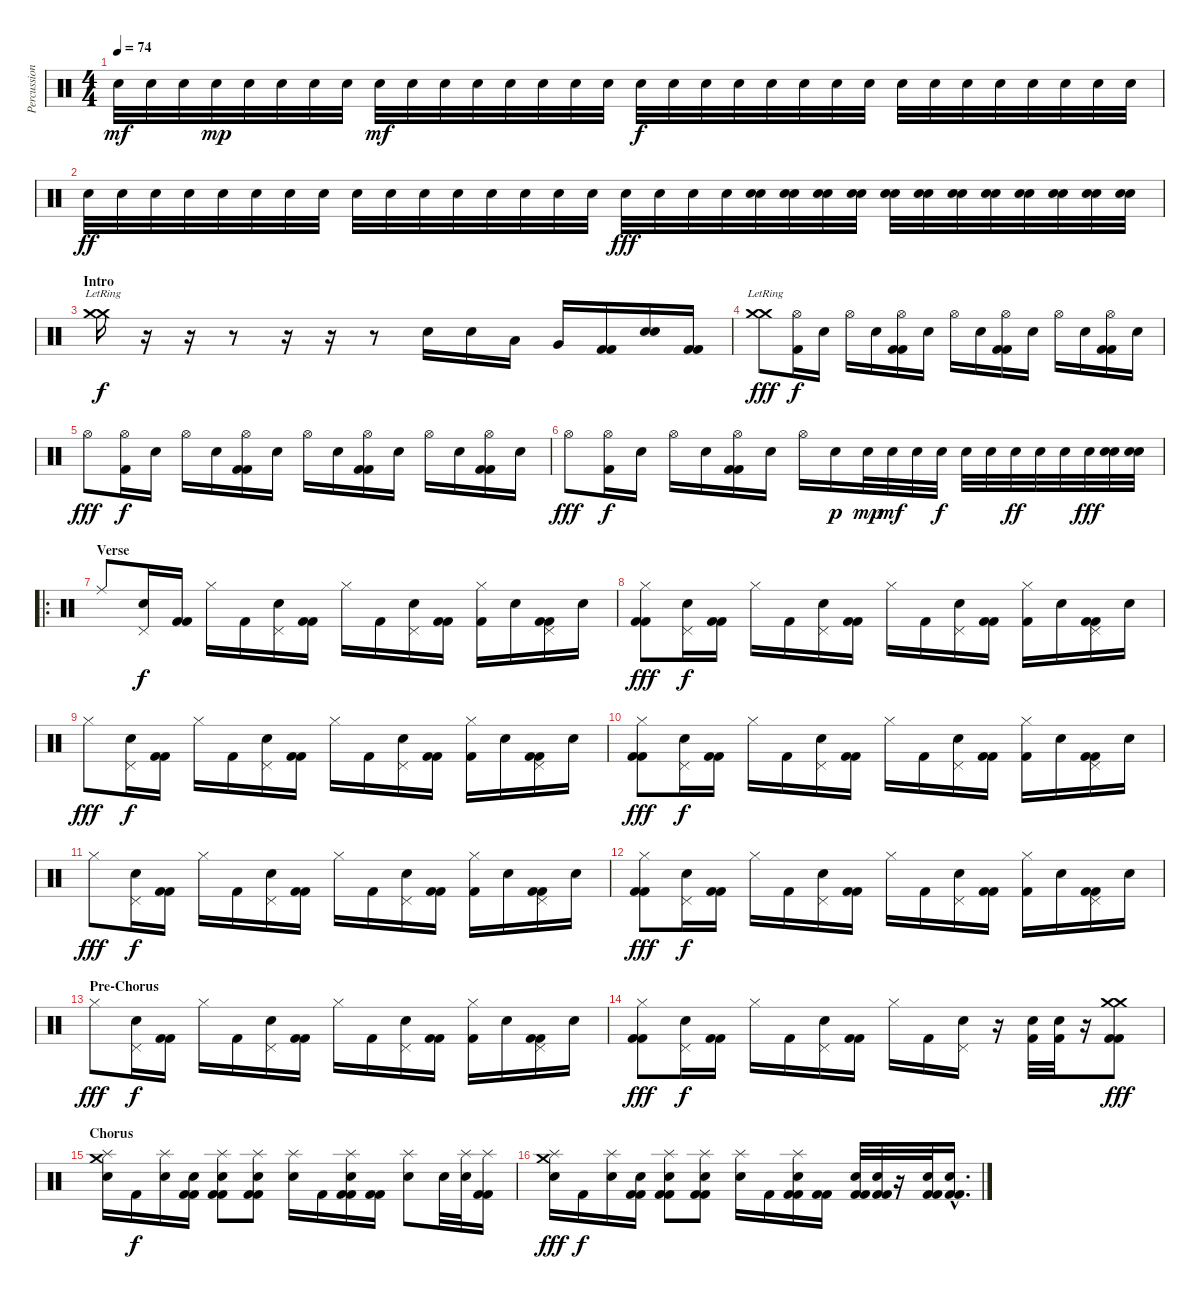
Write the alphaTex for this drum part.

\track ("Percussion" "Percussion") {instrument percussion}
\staff {score}
\articulation defaults
\ts (4 4)
\tempo 74
\clef neutral
\ks c "Snare (hit) 2".32{dy mf} "Snare (hit) 2".32 "Snare (hit) 2".32 "Snare (hit) 2".32{dy mp} "Snare (hit) 2".32 "Snare (hit) 2".32 "Snare (hit) 2".32 "Snare (hit) 2".32 "Snare (hit) 2".32{dy mf} "Snare (hit) 2".32 "Snare (hit) 2".32 "Snare (hit) 2".32 "Snare (hit) 2".32 "Snare (hit) 2".32 "Snare (hit) 2".32 "Snare (hit) 2".32 "Snare (hit) 2".32{dy f} "Snare (hit) 2".32 "Snare (hit) 2".32 "Snare (hit) 2".32 "Snare (hit) 2".32 "Snare (hit) 2".32 "Snare (hit) 2".32 "Snare (hit) 2".32 "Snare (hit) 2".32 "Snare (hit) 2".32 "Snare (hit) 2".32 "Snare (hit) 2".32 "Snare (hit) 2".32 "Snare (hit) 2".32 "Snare (hit) 2".32 "Snare (hit) 2".32
|
"Snare (hit) 2".32{dy ff} "Snare (hit) 2".32 "Snare (hit) 2".32 "Snare (hit) 2".32 "Snare (hit) 2".32 "Snare (hit) 2".32 "Snare (hit) 2".32 "Snare (hit) 2".32 "Snare (hit) 2".32 "Snare (hit) 2".32 "Snare (hit) 2".32 "Snare (hit) 2".32 "Snare (hit) 2".32 "Snare (hit) 2".32 "Snare (hit) 2".32 "Snare (hit) 2".32 "Snare (hit) 2".32{dy fff} "Snare (hit) 2".32 "Snare (hit) 2".32 "Snare (hit) 2".32 ("Snare (hit) 2" "Snare (hit) 2").32 ("Snare (hit) 2" "Snare (hit) 2").32 ("Snare (hit) 2" "Snare (hit) 2").32 ("Snare (hit) 2" "Snare (hit) 2").32 ("Snare (hit) 2" "Snare (hit) 2").32 ("Snare (hit) 2" "Snare (hit) 2").32 ("Snare (hit) 2" "Snare (hit) 2").32 ("Snare (hit) 2" "Snare (hit) 2").32 ("Snare (hit) 2" "Snare (hit) 2").32 ("Snare (hit) 2" "Snare (hit) 2").32 ("Snare (hit) 2" "Snare (hit) 2").32 ("Snare (hit) 2" "Snare (hit) 2").32 |
\section ("" "Intro")
("Crash medium (hit)"{lr} "Crash medium (hit)"{lr}).16{dy f} r.16 r.16 r.8 r.16 r.16 r.8 "Electric Snare (hit)".16 "Snare (hit) 2".16 "Low Tom (hit)".16 "Very Low Tom (hit)".16 ("Kick (hit) 2" "Kick (hit) 2").16 ("Snare (hit) 2" "Snare (hit) 2").16 ("Kick (hit) 2" "Kick (hit) 2").16 |
("Crash medium (hit)"{lr} "Crash medium (hit)").8{dy fff} ("Hi-Hat (open)" "Kick (hit) 2").16{dy f} "Snare (hit) 2".16 "Hi-Hat (open)".16 "Snare (hit) 2".16 ("Hi-Hat (open)" "Kick (hit) 2" "Kick (hit) 2").16 "Snare (hit) 2".16 "Hi-Hat (open)".16 "Snare (hit) 2".16 ("Hi-Hat (open)" "Kick (hit) 2" "Kick (hit) 2").16 "Snare (hit) 2".16 "Hi-Hat (open)".16 "Snare (hit) 2".16 ("Hi-Hat (open)" "Kick (hit) 2" "Kick (hit) 2").16 "Snare (hit) 2".16 |
"Hi-Hat (open)".8{dy fff} ("Hi-Hat (open)" "Kick (hit) 2").16{dy f} "Snare (hit) 2".16 "Hi-Hat (open)".16 "Snare (hit) 2".16 ("Hi-Hat (open)" "Kick (hit) 2" "Kick (hit) 2").16 "Snare (hit) 2".16 "Hi-Hat (open)".16 "Snare (hit) 2".16 ("Hi-Hat (open)" "Kick (hit) 2" "Kick (hit) 2").16 "Snare (hit) 2".16 "Hi-Hat (open)".16 "Snare (hit) 2".16 ("Hi-Hat (open)" "Kick (hit) 2" "Kick (hit) 2").16 "Snare (hit) 2".16 |
"Hi-Hat (open)".8{dy fff} ("Hi-Hat (open)" "Kick (hit) 2").16{dy f} "Snare (hit) 2".16 "Hi-Hat (open)".16 "Snare (hit) 2".16 ("Hi-Hat (open)" "Kick (hit) 2" "Kick (hit) 2").16 "Snare (hit) 2".16 "Hi-Hat (open)".16 "Snare (hit) 2".16{dy p} "Snare (hit) 2".32{dy mp} "Snare (hit) 2".32{dy mf} "Snare (hit) 2".32 "Snare (hit) 2".32{dy f} "Snare (hit) 2".32 "Snare (hit) 2".32 "Snare (hit) 2".32{dy ff} "Snare (hit) 2".32 "Snare (hit) 2".32 "Snare (hit) 2".32{dy fff} ("Snare (hit) 2" "Snare (hit) 2").32 ("Snare (hit) 2" "Snare (hit) 2").32 |
\ro
\section ("" "Verse")
"Ride (middle)".8 ("Pedal Hi-Hat (hit)" "Snare (hit) 2").16{dy f} ("Kick (hit) 2" "Kick (hit) 2").16 "Hi-Hat (closed)".16 "Kick (hit) 2".16 ("Pedal Hi-Hat (hit)" "Snare (hit) 2").16 ("Kick (hit) 2" "Kick (hit) 2").16 "Hi-Hat (closed)".16 "Kick (hit) 2".16 ("Pedal Hi-Hat (hit)" "Snare (hit) 2").16 ("Kick (hit) 2" "Kick (hit) 2").16 ("Hi-Hat (closed)" "Kick (hit) 2").16 "Snare (hit) 2".16 ("Pedal Hi-Hat (hit)" "Kick (hit) 2" "Kick (hit) 2").16 "Snare (hit) 2".16 |
("Hi-Hat (closed)" "Kick (hit) 2" "Kick (hit) 2").8{dy fff} ("Pedal Hi-Hat (hit)" "Snare (hit) 2").16{dy f} ("Kick (hit) 2" "Kick (hit) 2").16 "Hi-Hat (closed)".16 "Kick (hit) 2".16 ("Pedal Hi-Hat (hit)" "Snare (hit) 2").16 ("Kick (hit) 2" "Kick (hit) 2").16 "Hi-Hat (closed)".16 "Kick (hit) 2".16 ("Pedal Hi-Hat (hit)" "Snare (hit) 2").16 ("Kick (hit) 2" "Kick (hit) 2").16 ("Hi-Hat (closed)" "Kick (hit) 2").16 "Snare (hit) 2".16 ("Pedal Hi-Hat (hit)" "Kick (hit) 2" "Kick (hit) 2").16 "Snare (hit) 2".16 |
"Hi-Hat (closed)".8{dy fff} ("Pedal Hi-Hat (hit)" "Snare (hit) 2").16{dy f} ("Kick (hit) 2" "Kick (hit) 2").16 "Hi-Hat (closed)".16 "Kick (hit) 2".16 ("Pedal Hi-Hat (hit)" "Snare (hit) 2").16 ("Kick (hit) 2" "Kick (hit) 2").16 "Hi-Hat (closed)".16 "Kick (hit) 2".16 ("Pedal Hi-Hat (hit)" "Snare (hit) 2").16 ("Kick (hit) 2" "Kick (hit) 2").16 ("Hi-Hat (closed)" "Kick (hit) 2").16 "Snare (hit) 2".16 ("Pedal Hi-Hat (hit)" "Kick (hit) 2" "Kick (hit) 2").16 "Snare (hit) 2".16 |
("Hi-Hat (closed)" "Kick (hit) 2" "Kick (hit) 2").8{dy fff} ("Pedal Hi-Hat (hit)" "Snare (hit) 2").16{dy f} ("Kick (hit) 2" "Kick (hit) 2").16 "Hi-Hat (closed)".16 "Kick (hit) 2".16 ("Pedal Hi-Hat (hit)" "Snare (hit) 2").16 ("Kick (hit) 2" "Kick (hit) 2").16 "Hi-Hat (closed)".16 "Kick (hit) 2".16 ("Pedal Hi-Hat (hit)" "Snare (hit) 2").16 ("Kick (hit) 2" "Kick (hit) 2").16 ("Hi-Hat (closed)" "Kick (hit) 2").16 "Snare (hit) 2".16 ("Pedal Hi-Hat (hit)" "Kick (hit) 2" "Kick (hit) 2").16 "Snare (hit) 2".16 |
"Hi-Hat (closed)".8{dy fff} ("Pedal Hi-Hat (hit)" "Snare (hit) 2").16{dy f} ("Kick (hit) 2" "Kick (hit) 2").16 "Hi-Hat (closed)".16 "Kick (hit) 2".16 ("Pedal Hi-Hat (hit)" "Snare (hit) 2").16 ("Kick (hit) 2" "Kick (hit) 2").16 "Hi-Hat (closed)".16 "Kick (hit) 2".16 ("Pedal Hi-Hat (hit)" "Snare (hit) 2").16 ("Kick (hit) 2" "Kick (hit) 2").16 ("Hi-Hat (closed)" "Kick (hit) 2").16 "Snare (hit) 2".16 ("Pedal Hi-Hat (hit)" "Kick (hit) 2" "Kick (hit) 2").16 "Snare (hit) 2".16 |
("Hi-Hat (closed)" "Kick (hit) 2" "Kick (hit) 2").8{dy fff} ("Pedal Hi-Hat (hit)" "Snare (hit) 2").16{dy f} ("Kick (hit) 2" "Kick (hit) 2").16 "Hi-Hat (closed)".16 "Kick (hit) 2".16 ("Pedal Hi-Hat (hit)" "Snare (hit) 2").16 ("Kick (hit) 2" "Kick (hit) 2").16 "Hi-Hat (closed)".16 "Kick (hit) 2".16 ("Pedal Hi-Hat (hit)" "Snare (hit) 2").16 ("Kick (hit) 2" "Kick (hit) 2").16 ("Hi-Hat (closed)" "Kick (hit) 2").16 "Snare (hit) 2".16 ("Pedal Hi-Hat (hit)" "Kick (hit) 2" "Kick (hit) 2").16 "Snare (hit) 2".16 |
\section ("" "Pre-Chorus")
"Hi-Hat (closed)".8{dy fff} ("Pedal Hi-Hat (hit)" "Snare (hit) 2").16{dy f} ("Kick (hit) 2" "Kick (hit) 2").16 "Hi-Hat (closed)".16 "Kick (hit) 2".16 ("Pedal Hi-Hat (hit)" "Snare (hit) 2").16 ("Kick (hit) 2" "Kick (hit) 2").16 "Hi-Hat (closed)".16 "Kick (hit) 2".16 ("Pedal Hi-Hat (hit)" "Snare (hit) 2").16 ("Kick (hit) 2" "Kick (hit) 2").16 ("Hi-Hat (closed)" "Kick (hit) 2").16 "Snare (hit) 2".16 ("Pedal Hi-Hat (hit)" "Kick (hit) 2" "Kick (hit) 2").16 "Snare (hit) 2".16 |
("Hi-Hat (closed)" "Kick (hit) 2" "Kick (hit) 2").8{dy fff} ("Pedal Hi-Hat (hit)" "Snare (hit) 2").16{dy f} ("Kick (hit) 2" "Kick (hit) 2").16 "Hi-Hat (closed)".16 "Kick (hit) 2".16 ("Pedal Hi-Hat (hit)" "Snare (hit) 2").16 ("Kick (hit) 2" "Kick (hit) 2").16 "Hi-Hat (closed)".16 "Kick (hit) 2".16 ("Pedal Hi-Hat (hit)" "Snare (hit) 2").16 r.16 ("Snare (hit) 2" "Kick (hit) 2").32 ("Snare (hit) 2" "Kick (hit) 2").32 r.16 ("Crash medium (hit)" "Crash medium (hit)" "Kick (hit) 2" "Kick (hit) 2").8{dy fff} |
\section ("" "Chorus")
("Crash medium (hit)" "Splash (hit)" "Snare (hit) 2").16 "Kick (hit) 2".16{dy f} ("Splash (hit)" "Snare (hit) 2").16 ("Snare (hit) 2" "Kick (hit) 2" "Kick (hit) 2").16 ("Splash (hit)" "Snare (hit) 2" "Kick (hit) 2" "Kick (hit) 2").8 ("Splash (hit)" "Snare (hit) 2" "Kick (hit) 2" "Kick (hit) 2").8 ("Splash (hit)" "Snare (hit) 2").16 "Kick (hit) 2".16 ("Splash (hit)" "Snare (hit) 2" "Kick (hit) 2" "Kick (hit) 2").16 ("Kick (hit) 2" "Kick (hit) 2").16 ("Splash (hit)" "Snare (hit) 2").8 "Snare (hit) 2".32 ("Splash (hit)" "Snare (hit) 2").32 ("Splash (hit)" "Kick (hit) 2" "Kick (hit) 2").16 |
("Crash medium (hit)" "Splash (hit)" "Snare (hit) 2").16{dy fff} "Kick (hit) 2".16{dy f} ("Splash (hit)" "Snare (hit) 2").16 ("Snare (hit) 2" "Kick (hit) 2" "Kick (hit) 2").16 ("Splash (hit)" "Snare (hit) 2" "Kick (hit) 2" "Kick (hit) 2").8 ("Splash (hit)" "Snare (hit) 2" "Kick (hit) 2" "Kick (hit) 2").8 ("Splash (hit)" "Snare (hit) 2").16 "Kick (hit) 2".16 ("Splash (hit)" "Snare (hit) 2" "Kick (hit) 2" "Kick (hit) 2").16 ("Kick (hit) 2" "Kick (hit) 2").16 ("Snare (hit) 2" "Kick (hit) 2" "Kick (hit) 2").32 ("Snare (hit) 2" "Kick (hit) 2" "Kick (hit) 2").32 r.16 ("Snare (hit) 2" "Kick (hit) 2" "Kick (hit) 2").32 ("Snare (hit) 2"{hac} "Kick (hit) 2"{hac} "Kick (hit) 2"{hac}).16{d}
